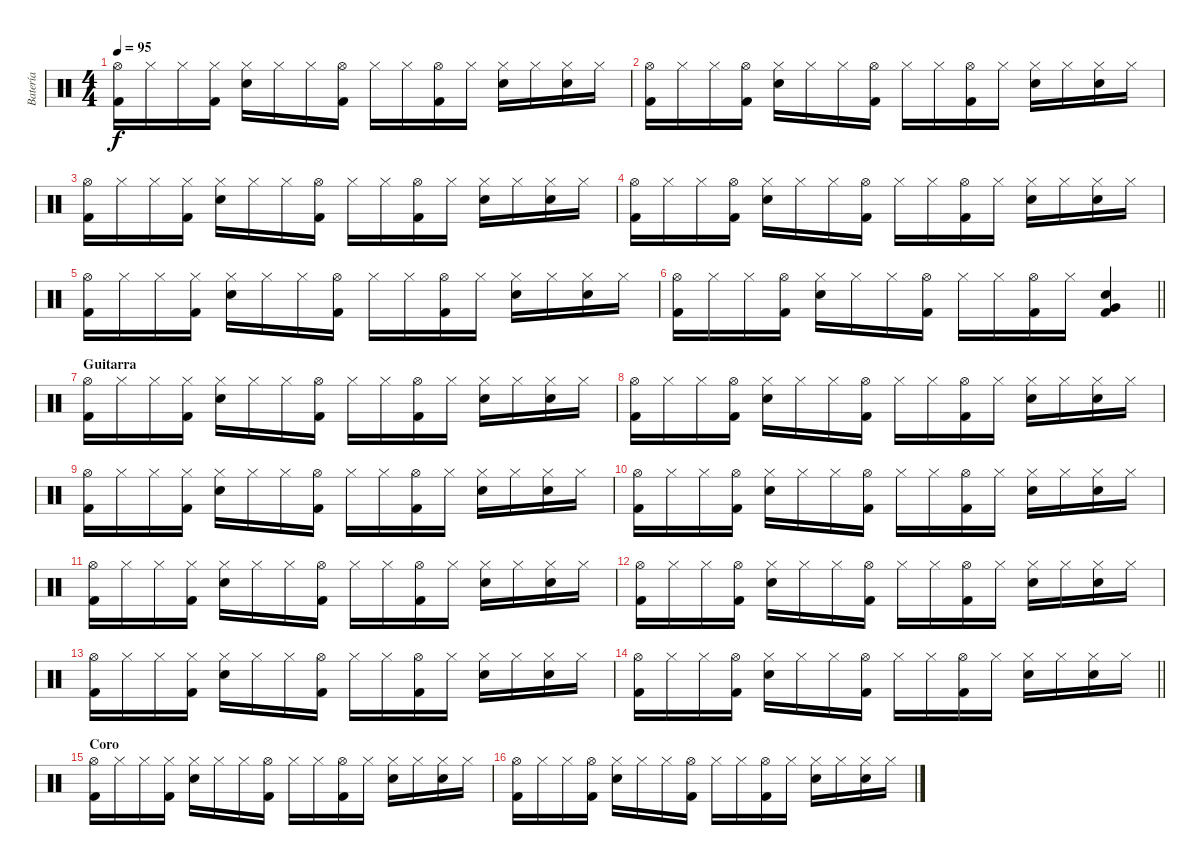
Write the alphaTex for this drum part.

\track ("Batería" "Batería") {instrument percussion}
\staff {score}
\articulation defaults
\ts (4 4)
\tempo 95
\clef neutral
\ks c
("Hi-Hat (open)" "Kick (hit) 2").16{dy f} "Hi-Hat (closed)".16 "Hi-Hat (closed)".16 ("Hi-Hat (closed)" "Kick (hit) 2").16 ("Hi-Hat (closed)" "Electric Snare (hit)").16 "Hi-Hat (closed)".16 "Hi-Hat (closed)".16 ("Hi-Hat (open)" "Kick (hit) 2").16 "Hi-Hat (closed)".16 "Hi-Hat (closed)".16 ("Hi-Hat (open)" "Kick (hit) 2").16 "Hi-Hat (closed)".16 ("Hi-Hat (closed)" "Electric Snare (hit)").16 "Hi-Hat (closed)".16 ("Hi-Hat (closed)" "Electric Snare (hit)").16 "Hi-Hat (closed)".16 |
("Hi-Hat (open)" "Kick (hit) 2").16 "Hi-Hat (closed)".16 "Hi-Hat (closed)".16 ("Hi-Hat (open)" "Kick (hit) 2").16 ("Hi-Hat (closed)" "Electric Snare (hit)").16 "Hi-Hat (closed)".16 "Hi-Hat (closed)".16 ("Hi-Hat (open)" "Kick (hit) 2").16 "Hi-Hat (closed)".16 "Hi-Hat (closed)".16 ("Hi-Hat (open)" "Kick (hit) 2").16 "Hi-Hat (closed)".16 ("Hi-Hat (closed)" "Electric Snare (hit)").16 "Hi-Hat (closed)".16 ("Hi-Hat (closed)" "Electric Snare (hit)").16 "Hi-Hat (closed)".16 |
("Hi-Hat (open)" "Kick (hit) 2").16 "Hi-Hat (closed)".16 "Hi-Hat (closed)".16 ("Hi-Hat (closed)" "Kick (hit) 2").16 ("Hi-Hat (closed)" "Electric Snare (hit)").16 "Hi-Hat (closed)".16 "Hi-Hat (closed)".16 ("Hi-Hat (open)" "Kick (hit) 2").16 "Hi-Hat (closed)".16 "Hi-Hat (closed)".16 ("Hi-Hat (open)" "Kick (hit) 2").16 "Hi-Hat (closed)".16 ("Hi-Hat (closed)" "Electric Snare (hit)").16 "Hi-Hat (closed)".16 ("Hi-Hat (closed)" "Electric Snare (hit)").16 "Hi-Hat (closed)".16 |
("Hi-Hat (open)" "Kick (hit) 2").16 "Hi-Hat (closed)".16 "Hi-Hat (closed)".16 ("Hi-Hat (open)" "Kick (hit) 2").16 ("Hi-Hat (closed)" "Electric Snare (hit)").16 "Hi-Hat (closed)".16 "Hi-Hat (closed)".16 ("Hi-Hat (open)" "Kick (hit) 2").16 "Hi-Hat (closed)".16 "Hi-Hat (closed)".16 ("Hi-Hat (open)" "Kick (hit) 2").16 "Hi-Hat (closed)".16 ("Hi-Hat (closed)" "Electric Snare (hit)").16 "Hi-Hat (closed)".16 ("Hi-Hat (closed)" "Electric Snare (hit)").16 "Hi-Hat (closed)".16 |
("Hi-Hat (open)" "Kick (hit) 2").16 "Hi-Hat (closed)".16 "Hi-Hat (closed)".16 ("Hi-Hat (closed)" "Kick (hit) 2").16 ("Hi-Hat (closed)" "Electric Snare (hit)").16 "Hi-Hat (closed)".16 "Hi-Hat (closed)".16 ("Hi-Hat (open)" "Kick (hit) 2").16 "Hi-Hat (closed)".16 "Hi-Hat (closed)".16 ("Hi-Hat (open)" "Kick (hit) 2").16 "Hi-Hat (closed)".16 ("Hi-Hat (closed)" "Electric Snare (hit)").16 "Hi-Hat (closed)".16 ("Hi-Hat (closed)" "Electric Snare (hit)").16 "Hi-Hat (closed)".16 |
\barLineRight lightlight
("Hi-Hat (open)" "Kick (hit) 2").16 "Hi-Hat (closed)".16 "Hi-Hat (closed)".16 ("Hi-Hat (open)" "Kick (hit) 2").16 ("Hi-Hat (closed)" "Electric Snare (hit)").16 "Hi-Hat (closed)".16 "Hi-Hat (closed)".16 ("Hi-Hat (open)" "Kick (hit) 2").16 "Hi-Hat (closed)".16 "Hi-Hat (closed)".16 ("Hi-Hat (open)" "Kick (hit) 2").16 "Hi-Hat (closed)".16 ("Very Low Tom (hit)" "Electric Snare (hit)" "Kick (hit) 2").4 |
\section ("" "Guitarra")
("Hi-Hat (open)" "Kick (hit) 2").16 "Hi-Hat (closed)".16 "Hi-Hat (closed)".16 ("Hi-Hat (closed)" "Kick (hit) 2").16 ("Hi-Hat (closed)" "Electric Snare (hit)").16 "Hi-Hat (closed)".16 "Hi-Hat (closed)".16 ("Hi-Hat (open)" "Kick (hit) 2").16 "Hi-Hat (closed)".16 "Hi-Hat (closed)".16 ("Hi-Hat (open)" "Kick (hit) 2").16 "Hi-Hat (closed)".16 ("Hi-Hat (closed)" "Electric Snare (hit)").16 "Hi-Hat (closed)".16 ("Hi-Hat (closed)" "Electric Snare (hit)").16 "Hi-Hat (closed)".16 |
("Hi-Hat (open)" "Kick (hit) 2").16 "Hi-Hat (closed)".16 "Hi-Hat (closed)".16 ("Hi-Hat (open)" "Kick (hit) 2").16 ("Hi-Hat (closed)" "Electric Snare (hit)").16 "Hi-Hat (closed)".16 "Hi-Hat (closed)".16 ("Hi-Hat (open)" "Kick (hit) 2").16 "Hi-Hat (closed)".16 "Hi-Hat (closed)".16 ("Hi-Hat (open)" "Kick (hit) 2").16 "Hi-Hat (closed)".16 ("Hi-Hat (closed)" "Electric Snare (hit)").16 "Hi-Hat (closed)".16 ("Hi-Hat (closed)" "Electric Snare (hit)").16 "Hi-Hat (closed)".16 |
("Hi-Hat (open)" "Kick (hit) 2").16 "Hi-Hat (closed)".16 "Hi-Hat (closed)".16 ("Hi-Hat (closed)" "Kick (hit) 2").16 ("Hi-Hat (closed)" "Electric Snare (hit)").16 "Hi-Hat (closed)".16 "Hi-Hat (closed)".16 ("Hi-Hat (open)" "Kick (hit) 2").16 "Hi-Hat (closed)".16 "Hi-Hat (closed)".16 ("Hi-Hat (open)" "Kick (hit) 2").16 "Hi-Hat (closed)".16 ("Hi-Hat (closed)" "Electric Snare (hit)").16 "Hi-Hat (closed)".16 ("Hi-Hat (closed)" "Electric Snare (hit)").16 "Hi-Hat (closed)".16 |
("Hi-Hat (open)" "Kick (hit) 2").16 "Hi-Hat (closed)".16 "Hi-Hat (closed)".16 ("Hi-Hat (open)" "Kick (hit) 2").16 ("Hi-Hat (closed)" "Electric Snare (hit)").16 "Hi-Hat (closed)".16 "Hi-Hat (closed)".16 ("Hi-Hat (open)" "Kick (hit) 2").16 "Hi-Hat (closed)".16 "Hi-Hat (closed)".16 ("Hi-Hat (open)" "Kick (hit) 2").16 "Hi-Hat (closed)".16 ("Hi-Hat (closed)" "Electric Snare (hit)").16 "Hi-Hat (closed)".16 ("Hi-Hat (closed)" "Electric Snare (hit)").16 "Hi-Hat (closed)".16 |
("Hi-Hat (open)" "Kick (hit) 2").16 "Hi-Hat (closed)".16 "Hi-Hat (closed)".16 ("Hi-Hat (closed)" "Kick (hit) 2").16 ("Hi-Hat (closed)" "Electric Snare (hit)").16 "Hi-Hat (closed)".16 "Hi-Hat (closed)".16 ("Hi-Hat (open)" "Kick (hit) 2").16 "Hi-Hat (closed)".16 "Hi-Hat (closed)".16 ("Hi-Hat (open)" "Kick (hit) 2").16 "Hi-Hat (closed)".16 ("Hi-Hat (closed)" "Electric Snare (hit)").16 "Hi-Hat (closed)".16 ("Hi-Hat (closed)" "Electric Snare (hit)").16 "Hi-Hat (closed)".16 |
("Hi-Hat (open)" "Kick (hit) 2").16 "Hi-Hat (closed)".16 "Hi-Hat (closed)".16 ("Hi-Hat (open)" "Kick (hit) 2").16 ("Hi-Hat (closed)" "Electric Snare (hit)").16 "Hi-Hat (closed)".16 "Hi-Hat (closed)".16 ("Hi-Hat (open)" "Kick (hit) 2").16 "Hi-Hat (closed)".16 "Hi-Hat (closed)".16 ("Hi-Hat (open)" "Kick (hit) 2").16 "Hi-Hat (closed)".16 ("Hi-Hat (closed)" "Electric Snare (hit)").16 "Hi-Hat (closed)".16 ("Hi-Hat (closed)" "Electric Snare (hit)").16 "Hi-Hat (closed)".16 |
("Hi-Hat (open)" "Kick (hit) 2").16 "Hi-Hat (closed)".16 "Hi-Hat (closed)".16 ("Hi-Hat (closed)" "Kick (hit) 2").16 ("Hi-Hat (closed)" "Electric Snare (hit)").16 "Hi-Hat (closed)".16 "Hi-Hat (closed)".16 ("Hi-Hat (open)" "Kick (hit) 2").16 "Hi-Hat (closed)".16 "Hi-Hat (closed)".16 ("Hi-Hat (open)" "Kick (hit) 2").16 "Hi-Hat (closed)".16 ("Hi-Hat (closed)" "Electric Snare (hit)").16 "Hi-Hat (closed)".16 ("Hi-Hat (closed)" "Electric Snare (hit)").16 "Hi-Hat (closed)".16 |
\barLineRight lightlight
("Hi-Hat (open)" "Kick (hit) 2").16 "Hi-Hat (closed)".16 "Hi-Hat (closed)".16 ("Hi-Hat (open)" "Kick (hit) 2").16 ("Hi-Hat (closed)" "Electric Snare (hit)").16 "Hi-Hat (closed)".16 "Hi-Hat (closed)".16 ("Hi-Hat (open)" "Kick (hit) 2").16 "Hi-Hat (closed)".16 "Hi-Hat (closed)".16 ("Hi-Hat (open)" "Kick (hit) 2").16 "Hi-Hat (closed)".16 ("Hi-Hat (closed)" "Electric Snare (hit)").16 "Hi-Hat (closed)".16 ("Hi-Hat (closed)" "Electric Snare (hit)").16 "Hi-Hat (closed)".16 |
\section ("" "Coro")
("Hi-Hat (open)" "Kick (hit) 2").16 "Hi-Hat (closed)".16 "Hi-Hat (closed)".16 ("Hi-Hat (closed)" "Kick (hit) 2").16 ("Hi-Hat (closed)" "Electric Snare (hit)").16 "Hi-Hat (closed)".16 "Hi-Hat (closed)".16 ("Hi-Hat (open)" "Kick (hit) 2").16 "Hi-Hat (closed)".16 "Hi-Hat (closed)".16 ("Hi-Hat (open)" "Kick (hit) 2").16 "Hi-Hat (closed)".16 ("Hi-Hat (closed)" "Electric Snare (hit)").16 "Hi-Hat (closed)".16 ("Hi-Hat (closed)" "Electric Snare (hit)").16 "Hi-Hat (closed)".16 |
("Hi-Hat (open)" "Kick (hit) 2").16 "Hi-Hat (closed)".16 "Hi-Hat (closed)".16 ("Hi-Hat (open)" "Kick (hit) 2").16 ("Hi-Hat (closed)" "Electric Snare (hit)").16 "Hi-Hat (closed)".16 "Hi-Hat (closed)".16 ("Hi-Hat (open)" "Kick (hit) 2").16 "Hi-Hat (closed)".16 "Hi-Hat (closed)".16 ("Hi-Hat (open)" "Kick (hit) 2").16 "Hi-Hat (closed)".16 ("Hi-Hat (closed)" "Electric Snare (hit)").16 "Hi-Hat (closed)".16 ("Hi-Hat (closed)" "Electric Snare (hit)").16 "Hi-Hat (closed)".16
